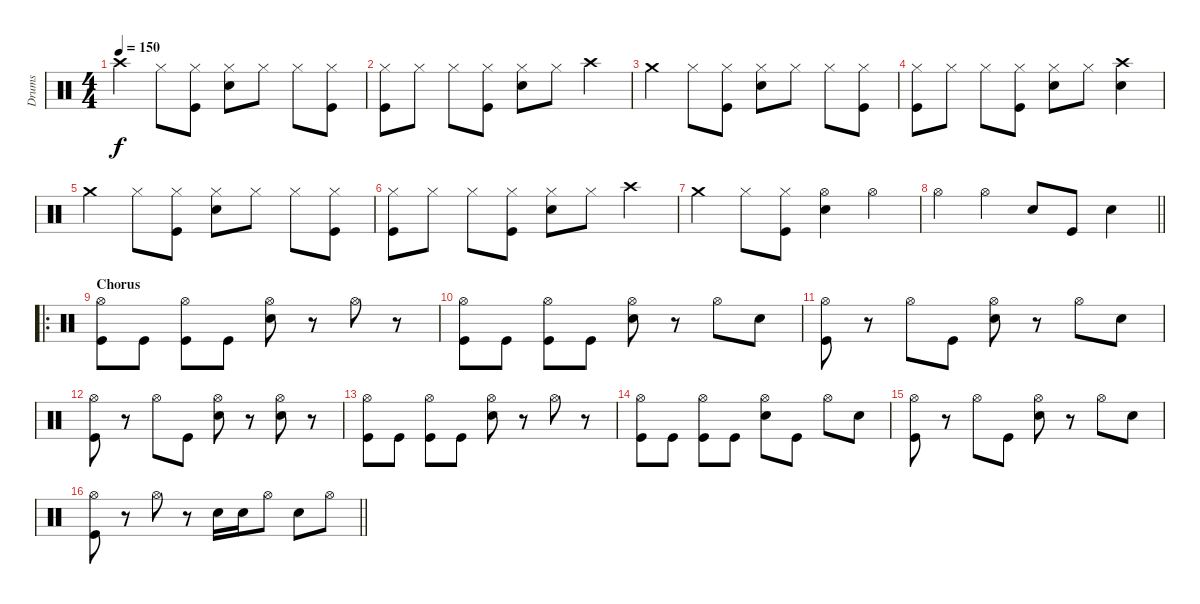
\track ("Drums" "Drums") {instrument percussion}
\staff {score}
\articulation defaults
\ts (4 4)
\tempo 150
\clef neutral
\ks c "Crash high (hit)".4{dy f} "Hi-Hat (closed)".8
("Hi-Hat (closed)" "Kick (hit)").8 ("Hi-Hat (closed)" "Snare (hit) 2").8 "Hi-Hat (closed)".8 "Hi-Hat (closed)".8 ("Hi-Hat (closed)" "Kick (hit)").8 |
("Hi-Hat (closed)" "Kick (hit)").8 "Hi-Hat (closed)".8 "Hi-Hat (closed)".8 ("Hi-Hat (closed)" "Kick (hit)").8 ("Hi-Hat (closed)" "Snare (hit) 2").8 "Hi-Hat (closed)".8 "Crash high (hit)".4 |
"Crash medium (hit)".4 "Hi-Hat (closed)".8 ("Hi-Hat (closed)" "Kick (hit)").8 ("Hi-Hat (closed)" "Snare (hit) 2").8 "Hi-Hat (closed)".8 "Hi-Hat (closed)".8 ("Hi-Hat (closed)" "Kick (hit)").8 |
("Hi-Hat (closed)" "Kick (hit)").8 "Hi-Hat (closed)".8 "Hi-Hat (closed)".8 ("Hi-Hat (closed)" "Kick (hit)").8 ("Hi-Hat (closed)" "Snare (hit) 2").8 "Hi-Hat (closed)".8 ("Crash high (hit)" "Snare (hit) 2").4 |
"Crash medium (hit)".4 "Hi-Hat (closed)".8 ("Hi-Hat (closed)" "Kick (hit)").8 ("Hi-Hat (closed)" "Snare (hit) 2").8 "Hi-Hat (closed)".8 "Hi-Hat (closed)".8 ("Hi-Hat (closed)" "Kick (hit)").8 |
("Hi-Hat (closed)" "Kick (hit)").8 "Hi-Hat (closed)".8 "Hi-Hat (closed)".8 ("Hi-Hat (closed)" "Kick (hit)").8 ("Hi-Hat (closed)" "Snare (hit) 2").8 "Hi-Hat (closed)".8 "Crash high (hit)".4 |
"Crash medium (hit)".4 "Hi-Hat (closed)".8 ("Hi-Hat (closed)" "Kick (hit)").8 ("Hi-Hat (open)" "Snare (hit) 2").4 "Hi-Hat (open)".4 |
\barLineRight lightlight "Hi-Hat (open)".4 "Hi-Hat (open)".4 "Snare (hit) 2".8 "Kick (hit)".8 "Snare (hit) 2".4
|
\ro
\section ("" "Chorus")
("Hi-Hat (open)" "Kick (hit)").8 "Kick (hit)".8 ("Hi-Hat (open)" "Kick (hit)").8 "Kick (hit)".8 ("Hi-Hat (open)" "Snare (hit) 2").8 r.8 "Hi-Hat (open)".8 r.8 |
("Hi-Hat (open)" "Kick (hit)").8 "Kick (hit)".8 ("Hi-Hat (open)" "Kick (hit)").8 "Kick (hit)".8 ("Hi-Hat (open)" "Snare (hit) 2").8 r.8 "Hi-Hat (open)".8 "Snare (hit) 2".8 |
("Hi-Hat (open)" "Kick (hit)").8 r.8 "Hi-Hat (open)".8 "Kick (hit)".8 ("Hi-Hat (open)" "Snare (hit) 2").8 r.8 "Hi-Hat (open)".8 "Snare (hit) 2".8 |
("Hi-Hat (open)" "Kick (hit)").8 r.8 "Hi-Hat (open)".8 "Kick (hit)".8 ("Hi-Hat (open)" "Snare (hit) 2").8 r.8 ("Hi-Hat (open)" "Snare (hit) 2").8 r.8 |
("Hi-Hat (open)" "Kick (hit)").8 "Kick (hit)".8 ("Hi-Hat (open)" "Kick (hit)").8 "Kick (hit)".8 ("Hi-Hat (open)" "Snare (hit) 2").8 r.8 "Hi-Hat (open)".8 r.8 |
("Hi-Hat (open)" "Kick (hit)").8 "Kick (hit)".8 ("Hi-Hat (open)" "Kick (hit)").8 "Kick (hit)".8 ("Hi-Hat (open)" "Snare (hit) 2").8 "Kick (hit)".8 "Hi-Hat (open)".8 "Snare (hit) 2".8 |
("Hi-Hat (open)" "Kick (hit)").8 r.8 "Hi-Hat (open)".8 "Kick (hit)".8 ("Hi-Hat (open)" "Snare (hit) 2").8 r.8 "Hi-Hat (open)".8 "Snare (hit) 2".8 |
\barLineRight lightlight
("Hi-Hat (open)" "Kick (hit)").8 r.8 "Hi-Hat (open)".8 r.8 "Snare (hit) 2".16 "Snare (hit) 2".16 "Hi-Hat (open)".8 "Snare (hit) 2".8 "Hi-Hat (open)".8
